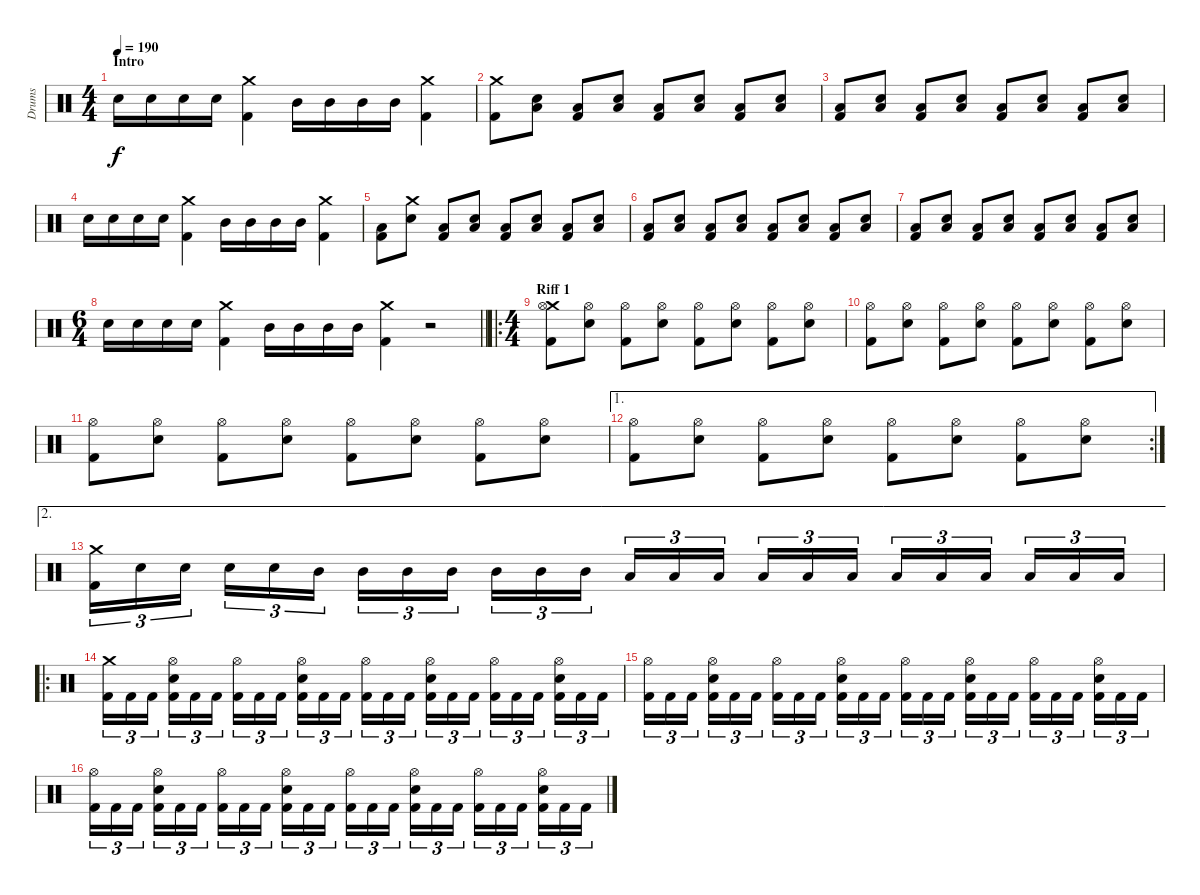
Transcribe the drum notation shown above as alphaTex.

\track ("Drums" "Drums") {instrument percussion}
\staff {score}
\articulation defaults
\ts (4 4)
\section ("" "Intro")
\tempo 190
\clef neutral
\ks c "Snare (hit) 2".16{dy f} "Snare (hit) 2".16 "Snare (hit) 2".16 "Snare (hit) 2".16
("Crash medium (hit)" "Kick (hit) 2").4 "Mid Tom (hit)".16 "Mid Tom (hit)".16 "Mid Tom (hit)".16 "Mid Tom (hit)".16 ("Crash medium (hit)" "Kick (hit) 2").4 |
("Crash medium (hit)" "Kick (hit) 2").8 ("Low Floor Tom (hit)" "Snare (hit) 2").8 ("Low Floor Tom (hit)" "Kick (hit) 2").8 ("Low Floor Tom (hit)" "Snare (hit) 2").8 ("Low Floor Tom (hit)" "Kick (hit) 2").8 ("Low Floor Tom (hit)" "Snare (hit) 2").8 ("Low Floor Tom (hit)" "Kick (hit) 2").8 ("Low Floor Tom (hit)" "Snare (hit) 2").8 |
("Low Floor Tom (hit)" "Kick (hit) 2").8 ("Low Floor Tom (hit)" "Snare (hit) 2").8 ("Low Floor Tom (hit)" "Kick (hit) 2").8 ("Low Floor Tom (hit)" "Snare (hit) 2").8 ("Low Floor Tom (hit)" "Kick (hit) 2").8 ("Low Floor Tom (hit)" "Snare (hit) 2").8 ("Low Floor Tom (hit)" "Kick (hit) 2").8 ("Low Floor Tom (hit)" "Snare (hit) 2").8 |
"Snare (hit) 2".16 "Snare (hit) 2".16 "Snare (hit) 2".16 "Snare (hit) 2".16 ("Crash medium (hit)" "Kick (hit) 2").4 "Mid Tom (hit)".16 "Mid Tom (hit)".16 "Mid Tom (hit)".16 "Mid Tom (hit)".16 ("Crash medium (hit)" "Kick (hit) 2").4 |
("Low Floor Tom (hit)" "Kick (hit) 2").8 ("Crash medium (hit)" "Snare (hit) 2").8 ("Low Floor Tom (hit)" "Kick (hit) 2").8 ("Low Floor Tom (hit)" "Snare (hit) 2").8 ("Low Floor Tom (hit)" "Kick (hit) 2").8 ("Low Floor Tom (hit)" "Snare (hit) 2").8 ("Low Floor Tom (hit)" "Kick (hit) 2").8 ("Low Floor Tom (hit)" "Snare (hit) 2").8 |
("Low Floor Tom (hit)" "Kick (hit) 2").8 ("Low Floor Tom (hit)" "Snare (hit) 2").8 ("Low Floor Tom (hit)" "Kick (hit) 2").8 ("Low Floor Tom (hit)" "Snare (hit) 2").8 ("Low Floor Tom (hit)" "Kick (hit) 2").8 ("Low Floor Tom (hit)" "Snare (hit) 2").8 ("Low Floor Tom (hit)" "Kick (hit) 2").8 ("Low Floor Tom (hit)" "Snare (hit) 2").8 |
("Low Floor Tom (hit)" "Kick (hit) 2").8 ("Low Floor Tom (hit)" "Snare (hit) 2").8 ("Low Floor Tom (hit)" "Kick (hit) 2").8 ("Low Floor Tom (hit)" "Snare (hit) 2").8 ("Low Floor Tom (hit)" "Kick (hit) 2").8 ("Low Floor Tom (hit)" "Snare (hit) 2").8 ("Low Floor Tom (hit)" "Kick (hit) 2").8 ("Low Floor Tom (hit)" "Snare (hit) 2").8 |
\ts (6 4)
\barLineRight lightlight "Snare (hit) 2".16 "Snare (hit) 2".16 "Snare (hit) 2".16 "Snare (hit) 2".16
("Crash medium (hit)" "Kick (hit) 2").4 "Mid Tom (hit)".16 "Mid Tom (hit)".16 "Mid Tom (hit)".16 "Mid Tom (hit)".16 ("Crash medium (hit)" "Kick (hit) 2").4 r.2 |
\ro
\ts (4 4)
\section ("" "Riff 1")
("Crash medium (hit)" "Hi-Hat (open)" "Kick (hit) 2").8 ("Hi-Hat (open)" "Snare (hit) 2").8 ("Hi-Hat (open)" "Kick (hit) 2").8 ("Hi-Hat (open)" "Snare (hit) 2").8 ("Hi-Hat (open)" "Kick (hit) 2").8 ("Hi-Hat (open)" "Snare (hit) 2").8 ("Hi-Hat (open)" "Kick (hit) 2").8 ("Hi-Hat (open)" "Snare (hit) 2").8 |
("Hi-Hat (open)" "Kick (hit) 2").8 ("Hi-Hat (open)" "Snare (hit) 2").8 ("Hi-Hat (open)" "Kick (hit) 2").8 ("Hi-Hat (open)" "Snare (hit) 2").8 ("Hi-Hat (open)" "Kick (hit) 2").8 ("Hi-Hat (open)" "Snare (hit) 2").8 ("Hi-Hat (open)" "Kick (hit) 2").8 ("Hi-Hat (open)" "Snare (hit) 2").8 |
("Hi-Hat (open)" "Kick (hit) 2").8 ("Hi-Hat (open)" "Snare (hit) 2").8 ("Hi-Hat (open)" "Kick (hit) 2").8 ("Hi-Hat (open)" "Snare (hit) 2").8 ("Hi-Hat (open)" "Kick (hit) 2").8 ("Hi-Hat (open)" "Snare (hit) 2").8 ("Hi-Hat (open)" "Kick (hit) 2").8 ("Hi-Hat (open)" "Snare (hit) 2").8 |
\ae 1
\rc 2
("Hi-Hat (open)" "Kick (hit) 2").8 ("Hi-Hat (open)" "Snare (hit) 2").8 ("Hi-Hat (open)" "Kick (hit) 2").8 ("Hi-Hat (open)" "Snare (hit) 2").8 ("Hi-Hat (open)" "Kick (hit) 2").8 ("Hi-Hat (open)" "Snare (hit) 2").8 ("Hi-Hat (open)" "Kick (hit) 2").8 ("Hi-Hat (open)" "Snare (hit) 2").8 |
\ae 2
("Crash medium (hit)" "Kick (hit) 2").16{tu (3 2)} "Snare (hit) 2".16{tu (3 2)} "Snare (hit) 2".16{tu (3 2) beam splitsecondary} "Snare (hit) 2".16{tu (3 2)} "Snare (hit) 2".16{tu (3 2)} "Mid Tom (hit)".16{tu (3 2)} "Mid Tom (hit)".16{tu (3 2)} "Mid Tom (hit)".16{tu (3 2)} "Mid Tom (hit)".16{tu (3 2) beam splitsecondary} "Mid Tom (hit)".16{tu (3 2)} "Mid Tom (hit)".16{tu (3 2)} "Mid Tom (hit)".16{tu (3 2)} "Low Tom (hit)".16{tu (3 2)} "Low Tom (hit)".16{tu (3 2)} "Low Tom (hit)".16{tu (3 2) beam splitsecondary} "Low Tom (hit)".16{tu (3 2)} "Low Tom (hit)".16{tu (3 2)} "Low Tom (hit)".16{tu (3 2)} "Low Floor Tom (hit)".16{tu (3 2)} "Low Floor Tom (hit)".16{tu (3 2)} "Low Floor Tom (hit)".16{tu (3 2) beam splitsecondary} "Low Floor Tom (hit)".16{tu (3 2)} "Low Floor Tom (hit)".16{tu (3 2)} "Low Floor Tom (hit)".16{tu (3 2)} |
\ro
("Crash medium (hit)" "Kick (hit) 2").16{tu (3 2)} "Kick (hit) 2".16{tu (3 2)} "Kick (hit) 2".16{tu (3 2) beam splitsecondary} ("Hi-Hat (open)" "Snare (hit) 2" "Kick (hit) 2").16{tu (3 2)} "Kick (hit) 2".16{tu (3 2)} "Kick (hit) 2".16{tu (3 2)} ("Hi-Hat (open)" "Kick (hit) 2").16{tu (3 2)} "Kick (hit) 2".16{tu (3 2)} "Kick (hit) 2".16{tu (3 2) beam splitsecondary} ("Hi-Hat (open)" "Snare (hit) 2" "Kick (hit) 2").16{tu (3 2)} "Kick (hit) 2".16{tu (3 2)} "Kick (hit) 2".16{tu (3 2)} ("Hi-Hat (open)" "Kick (hit) 2").16{tu (3 2)} "Kick (hit) 2".16{tu (3 2)} "Kick (hit) 2".16{tu (3 2) beam splitsecondary} ("Hi-Hat (open)" "Snare (hit) 2" "Kick (hit) 2").16{tu (3 2)} "Kick (hit) 2".16{tu (3 2)} "Kick (hit) 2".16{tu (3 2)} ("Hi-Hat (open)" "Kick (hit) 2").16{tu (3 2)} "Kick (hit) 2".16{tu (3 2)} "Kick (hit) 2".16{tu (3 2) beam splitsecondary} ("Hi-Hat (open)" "Snare (hit) 2" "Kick (hit) 2").16{tu (3 2)} "Kick (hit) 2".16{tu (3 2)} "Kick (hit) 2".16{tu (3 2)} |
("Hi-Hat (open)" "Kick (hit) 2").16{tu (3 2)} "Kick (hit) 2".16{tu (3 2)} "Kick (hit) 2".16{tu (3 2) beam splitsecondary} ("Hi-Hat (open)" "Snare (hit) 2" "Kick (hit) 2").16{tu (3 2)} "Kick (hit) 2".16{tu (3 2)} "Kick (hit) 2".16{tu (3 2)} ("Hi-Hat (open)" "Kick (hit) 2").16{tu (3 2)} "Kick (hit) 2".16{tu (3 2)} "Kick (hit) 2".16{tu (3 2) beam splitsecondary} ("Hi-Hat (open)" "Snare (hit) 2" "Kick (hit) 2").16{tu (3 2)} "Kick (hit) 2".16{tu (3 2)} "Kick (hit) 2".16{tu (3 2)} ("Hi-Hat (open)" "Kick (hit) 2").16{tu (3 2)} "Kick (hit) 2".16{tu (3 2)} "Kick (hit) 2".16{tu (3 2) beam splitsecondary} ("Hi-Hat (open)" "Snare (hit) 2" "Kick (hit) 2").16{tu (3 2)} "Kick (hit) 2".16{tu (3 2)} "Kick (hit) 2".16{tu (3 2)} ("Hi-Hat (open)" "Kick (hit) 2").16{tu (3 2)} "Kick (hit) 2".16{tu (3 2)} "Kick (hit) 2".16{tu (3 2) beam splitsecondary} ("Hi-Hat (open)" "Snare (hit) 2" "Kick (hit) 2").16{tu (3 2)} "Kick (hit) 2".16{tu (3 2)} "Kick (hit) 2".16{tu (3 2)} |
("Hi-Hat (open)" "Kick (hit) 2").16{tu (3 2)} "Kick (hit) 2".16{tu (3 2)} "Kick (hit) 2".16{tu (3 2) beam splitsecondary} ("Hi-Hat (open)" "Snare (hit) 2" "Kick (hit) 2").16{tu (3 2)} "Kick (hit) 2".16{tu (3 2)} "Kick (hit) 2".16{tu (3 2)} ("Hi-Hat (open)" "Kick (hit) 2").16{tu (3 2)} "Kick (hit) 2".16{tu (3 2)} "Kick (hit) 2".16{tu (3 2) beam splitsecondary} ("Hi-Hat (open)" "Snare (hit) 2" "Kick (hit) 2").16{tu (3 2)} "Kick (hit) 2".16{tu (3 2)} "Kick (hit) 2".16{tu (3 2)} ("Hi-Hat (open)" "Kick (hit) 2").16{tu (3 2)} "Kick (hit) 2".16{tu (3 2)} "Kick (hit) 2".16{tu (3 2) beam splitsecondary} ("Hi-Hat (open)" "Snare (hit) 2" "Kick (hit) 2").16{tu (3 2)} "Kick (hit) 2".16{tu (3 2)} "Kick (hit) 2".16{tu (3 2)} ("Hi-Hat (open)" "Kick (hit) 2").16{tu (3 2)} "Kick (hit) 2".16{tu (3 2)} "Kick (hit) 2".16{tu (3 2) beam splitsecondary} ("Hi-Hat (open)" "Snare (hit) 2" "Kick (hit) 2").16{tu (3 2)} "Kick (hit) 2".16{tu (3 2)} "Kick (hit) 2".16{tu (3 2)}
